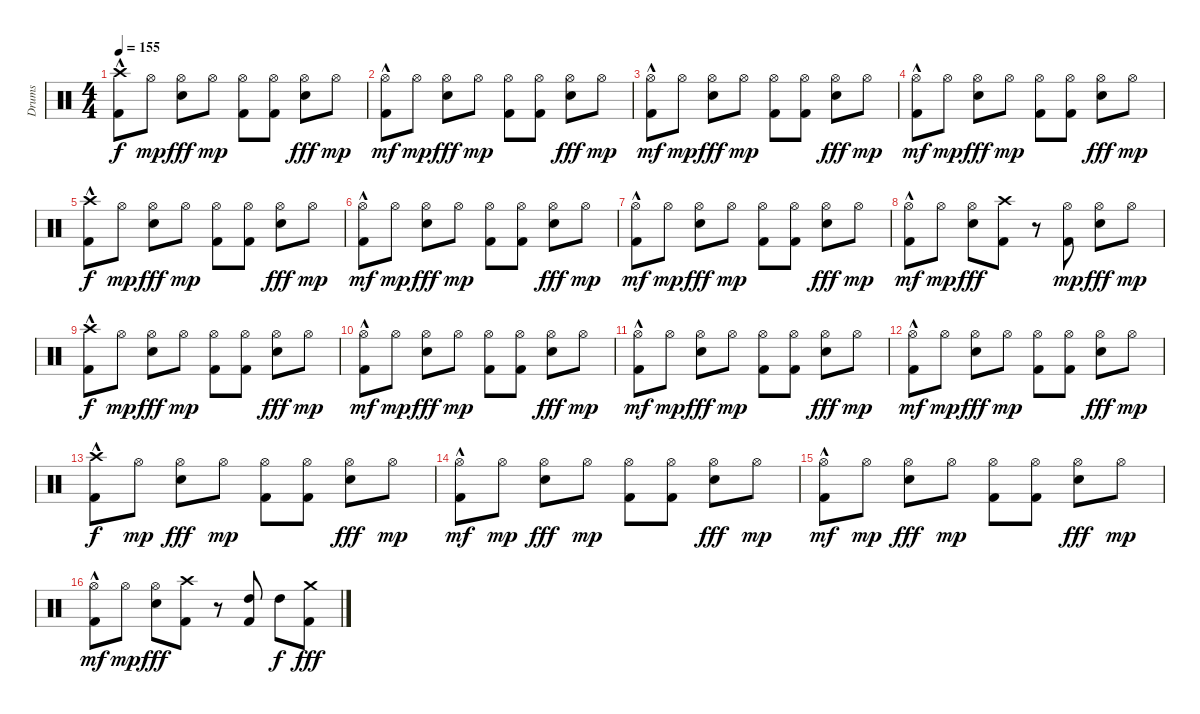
\track ("Drums" "Drums") {instrument percussion}
\staff {score}
\articulation defaults
\ts (4 4)
\tempo 155
\clef neutral
\ks c
("Kick (hit) 2"{hac} "Crash high (hit)").8{dy f} "Hi-Hat (open)".8{dy mp} ("Snare (hit) 2" "Hi-Hat (open)").8{dy fff} "Hi-Hat (open)".8{dy mp} ("Kick (hit) 2" "Hi-Hat (open)").8 ("Kick (hit) 2" "Hi-Hat (open)").8 ("Snare (hit) 2" "Hi-Hat (open)").8{dy fff} "Hi-Hat (open)".8{dy mp} |
("Kick (hit) 2"{hac} "Hi-Hat (open)").8{dy mf} "Hi-Hat (open)".8{dy mp} ("Snare (hit) 2" "Hi-Hat (open)").8{dy fff} "Hi-Hat (open)".8{dy mp} ("Kick (hit) 2" "Hi-Hat (open)").8 ("Kick (hit) 2" "Hi-Hat (open)").8 ("Snare (hit) 2" "Hi-Hat (open)").8{dy fff} "Hi-Hat (open)".8{dy mp} |
("Kick (hit) 2"{hac} "Hi-Hat (open)").8{dy mf} "Hi-Hat (open)".8{dy mp} ("Snare (hit) 2" "Hi-Hat (open)").8{dy fff} "Hi-Hat (open)".8{dy mp} ("Kick (hit) 2" "Hi-Hat (open)").8 ("Kick (hit) 2" "Hi-Hat (open)").8 ("Snare (hit) 2" "Hi-Hat (open)").8{dy fff} "Hi-Hat (open)".8{dy mp} |
("Kick (hit) 2"{hac} "Hi-Hat (open)").8{dy mf} "Hi-Hat (open)".8{dy mp} ("Snare (hit) 2" "Hi-Hat (open)").8{dy fff} "Hi-Hat (open)".8{dy mp} ("Kick (hit) 2" "Hi-Hat (open)").8 ("Kick (hit) 2" "Hi-Hat (open)").8 ("Snare (hit) 2" "Hi-Hat (open)").8{dy fff} "Hi-Hat (open)".8{dy mp} |
("Kick (hit) 2"{hac} "Crash high (hit)").8{dy f} "Hi-Hat (open)".8{dy mp} ("Snare (hit) 2" "Hi-Hat (open)").8{dy fff} "Hi-Hat (open)".8{dy mp} ("Kick (hit) 2" "Hi-Hat (open)").8 ("Kick (hit) 2" "Hi-Hat (open)").8 ("Snare (hit) 2" "Hi-Hat (open)").8{dy fff} "Hi-Hat (open)".8{dy mp} |
("Kick (hit) 2"{hac} "Hi-Hat (open)").8{dy mf} "Hi-Hat (open)".8{dy mp} ("Snare (hit) 2" "Hi-Hat (open)").8{dy fff} "Hi-Hat (open)".8{dy mp} ("Kick (hit) 2" "Hi-Hat (open)").8 ("Kick (hit) 2" "Hi-Hat (open)").8 ("Snare (hit) 2" "Hi-Hat (open)").8{dy fff} "Hi-Hat (open)".8{dy mp} |
("Kick (hit) 2"{hac} "Hi-Hat (open)").8{dy mf} "Hi-Hat (open)".8{dy mp} ("Snare (hit) 2" "Hi-Hat (open)").8{dy fff} "Hi-Hat (open)".8{dy mp} ("Kick (hit) 2" "Hi-Hat (open)").8 ("Kick (hit) 2" "Hi-Hat (open)").8 ("Snare (hit) 2" "Hi-Hat (open)").8{dy fff} "Hi-Hat (open)".8{dy mp} |
("Kick (hit) 2"{hac} "Hi-Hat (open)").8{dy mf} "Hi-Hat (open)".8{dy mp} ("Snare (hit) 2" "Hi-Hat (open)").8{dy fff} ("Kick (hit) 2" "Crash high (hit)").8 r.8 ("Kick (hit) 2" "Hi-Hat (open)").8{dy mp} ("Snare (hit) 2" "Hi-Hat (open)").8{dy fff} "Hi-Hat (open)".8{dy mp} |
("Kick (hit) 2"{hac} "Crash high (hit)").8{dy f} "Hi-Hat (open)".8{dy mp} ("Snare (hit) 2" "Hi-Hat (open)").8{dy fff} "Hi-Hat (open)".8{dy mp} ("Kick (hit) 2" "Hi-Hat (open)").8 ("Kick (hit) 2" "Hi-Hat (open)").8 ("Snare (hit) 2" "Hi-Hat (open)").8{dy fff} "Hi-Hat (open)".8{dy mp} |
("Kick (hit) 2"{hac} "Hi-Hat (open)").8{dy mf} "Hi-Hat (open)".8{dy mp} ("Snare (hit) 2" "Hi-Hat (open)").8{dy fff} "Hi-Hat (open)".8{dy mp} ("Kick (hit) 2" "Hi-Hat (open)").8 ("Kick (hit) 2" "Hi-Hat (open)").8 ("Snare (hit) 2" "Hi-Hat (open)").8{dy fff} "Hi-Hat (open)".8{dy mp} |
("Kick (hit) 2"{hac} "Hi-Hat (open)").8{dy mf} "Hi-Hat (open)".8{dy mp} ("Snare (hit) 2" "Hi-Hat (open)").8{dy fff} "Hi-Hat (open)".8{dy mp} ("Kick (hit) 2" "Hi-Hat (open)").8 ("Kick (hit) 2" "Hi-Hat (open)").8 ("Snare (hit) 2" "Hi-Hat (open)").8{dy fff} "Hi-Hat (open)".8{dy mp} |
("Kick (hit) 2"{hac} "Hi-Hat (open)").8{dy mf} "Hi-Hat (open)".8{dy mp} ("Snare (hit) 2" "Hi-Hat (open)").8{dy fff} "Hi-Hat (open)".8{dy mp} ("Kick (hit) 2" "Hi-Hat (open)").8 ("Kick (hit) 2" "Hi-Hat (open)").8 ("Snare (hit) 2" "Hi-Hat (open)").8{dy fff} "Hi-Hat (open)".8{dy mp} |
("Kick (hit) 2"{hac} "Crash high (hit)").8{dy f} "Hi-Hat (open)".8{dy mp} ("Snare (hit) 2" "Hi-Hat (open)").8{dy fff} "Hi-Hat (open)".8{dy mp} ("Kick (hit) 2" "Hi-Hat (open)").8 ("Kick (hit) 2" "Hi-Hat (open)").8 ("Snare (hit) 2" "Hi-Hat (open)").8{dy fff} "Hi-Hat (open)".8{dy mp} |
("Kick (hit) 2"{hac} "Hi-Hat (open)").8{dy mf} "Hi-Hat (open)".8{dy mp} ("Snare (hit) 2" "Hi-Hat (open)").8{dy fff} "Hi-Hat (open)".8{dy mp} ("Kick (hit) 2" "Hi-Hat (open)").8 ("Kick (hit) 2" "Hi-Hat (open)").8 ("Snare (hit) 2" "Hi-Hat (open)").8{dy fff} "Hi-Hat (open)".8{dy mp} |
("Kick (hit) 2"{hac} "Hi-Hat (open)").8{dy mf} "Hi-Hat (open)".8{dy mp} ("Snare (hit) 2" "Hi-Hat (open)").8{dy fff} "Hi-Hat (open)".8{dy mp} ("Kick (hit) 2" "Hi-Hat (open)").8 ("Kick (hit) 2" "Hi-Hat (open)").8 ("Snare (hit) 2" "Hi-Hat (open)").8{dy fff} "Hi-Hat (open)".8{dy mp} |
("Kick (hit) 2"{hac} "Hi-Hat (open)").8{dy mf} "Hi-Hat (open)".8{dy mp} ("Snare (hit) 2" "Hi-Hat (open)").8{dy fff} ("Kick (hit) 2" "Crash high (hit)").8 r.8 ("Kick (hit) 2" "High Tom (hit)").8 "High Tom (hit)".8{dy f} ("Kick (hit) 2" "Crash medium (hit)").8{dy fff}
